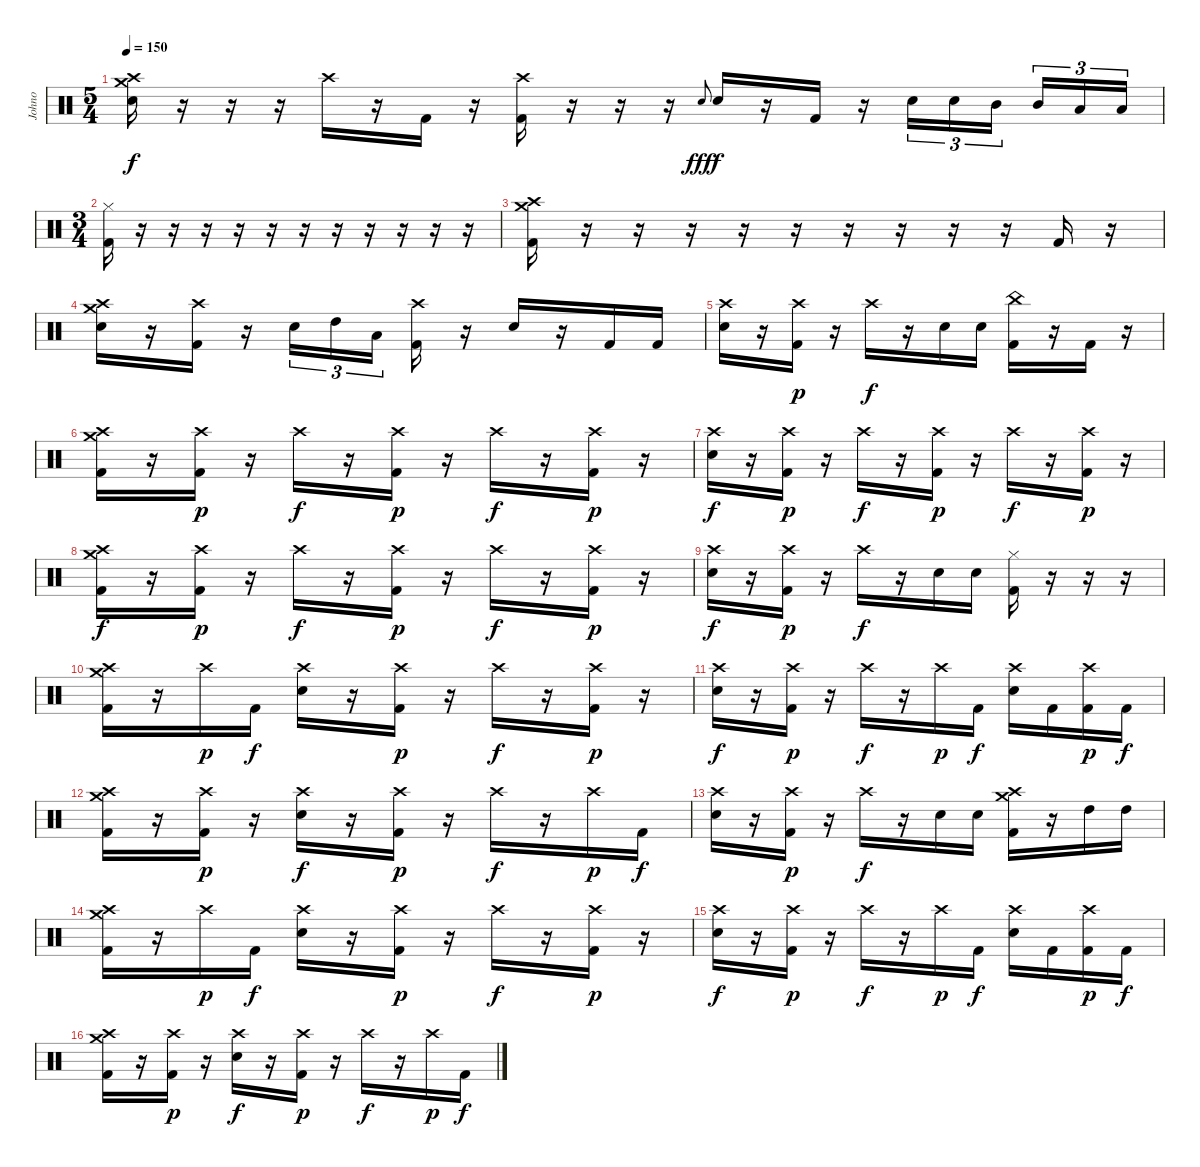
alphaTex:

\track ("Johno" "Johno") {instrument percussion}
\staff {score}
\articulation defaults
\ts (5 4)
\tempo 150
\clef neutral
\ks c
("Crash medium (hit)" "Crash high (hit)" "Electric Snare (hit)").16{dy f} r.16 r.16 r.16 "Crash high (hit)".16 r.16 "Kick (hit) 2".16 r.16 ("Crash high (hit)" "Kick (hit) 2").16 r.16 r.16 r.16 "Electric Snare (hit)".8{gr onbeat dy fff} "Electric Snare (hit)".16{dy f} r.16 "Kick (hit) 2".16 r.16 "Electric Snare (hit)".16{tu (3 2)} "Electric Snare (hit)".16{tu (3 2)} "Mid Tom (hit)".16{tu (3 2) beam splitsecondary} "Mid Tom (hit)".16{tu (3 2)} "Low Floor Tom (hit)".16{tu (3 2)} "Low Floor Tom (hit)".16{tu (3 2)} |
\ts (3 4)
("Hi-Hat (closed)" "Kick (hit) 2").16 r.16 r.16 r.16 r.16 r.16 r.16 r.16 r.16 r.16 r.16 r.16 |
("Crash medium (hit)" "Crash high (hit)" "Kick (hit) 2").16 r.16 r.16 r.16 r.16 r.16 r.16 r.16 r.16 r.16 "Kick (hit) 2".16 r.16 |
("Crash medium (hit)" "Crash high (hit)" "Electric Snare (hit)").16 r.16 ("Crash high (hit)" "Kick (hit) 2").16 r.16 "Electric Snare (hit)".16{tu (3 2)} "High Tom (hit)".16{tu (3 2)} "Low Floor Tom (hit)".16{tu (3 2) beam splitsecondary} ("Crash high (hit)" "Kick (hit) 2").16 r.16 "Electric Snare (hit)".16 r.16 "Kick (hit) 2".16 "Kick (hit) 2".16 |
("Crash high (hit)" "Electric Snare (hit)").16 r.16 ("Crash high (hit)" "Kick (hit) 2").16{dy p} r.16 "Crash high (hit)".16{dy f} r.16 "Electric Snare (hit)".16 "Electric Snare (hit)".16 ("China (hit)" "Kick (hit) 2").16 r.16 "Kick (hit) 2".16 r.16 |
("Crash medium (hit)" "Crash high (hit)" "Kick (hit) 2").16 r.16 ("Crash high (hit)" "Kick (hit) 2").16{dy p} r.16 "Crash high (hit)".16{dy f} r.16 ("Crash high (hit)" "Kick (hit) 2").16{dy p} r.16 "Crash high (hit)".16{dy f} r.16 ("Crash high (hit)" "Kick (hit) 2").16{dy p} r.16 |
("Crash high (hit)" "Electric Snare (hit)").16{dy f} r.16 ("Crash high (hit)" "Kick (hit) 2").16{dy p} r.16 "Crash high (hit)".16{dy f} r.16 ("Crash high (hit)" "Kick (hit) 2").16{dy p} r.16 "Crash high (hit)".16{dy f} r.16 ("Crash high (hit)" "Kick (hit) 2").16{dy p} r.16 |
("Crash medium (hit)" "Crash high (hit)" "Kick (hit) 2").16{dy f} r.16 ("Crash high (hit)" "Kick (hit) 2").16{dy p} r.16 "Crash high (hit)".16{dy f} r.16 ("Crash high (hit)" "Kick (hit) 2").16{dy p} r.16 "Crash high (hit)".16{dy f} r.16 ("Crash high (hit)" "Kick (hit) 2").16{dy p} r.16 |
("Crash high (hit)" "Electric Snare (hit)").16{dy f} r.16 ("Crash high (hit)" "Kick (hit) 2").16{dy p} r.16 "Crash high (hit)".16{dy f} r.16 "Electric Snare (hit)".16 "Electric Snare (hit)".16 ("Hi-Hat (closed)" "Kick (hit) 2").16 r.16 r.16 r.16 |
("Crash medium (hit)" "Crash high (hit)" "Kick (hit) 2").16 r.16 "Crash high (hit)".16{dy p} "Kick (hit) 2".16{dy f} ("Crash high (hit)" "Electric Snare (hit)").16 r.16 ("Crash high (hit)" "Kick (hit) 2").16{dy p} r.16 "Crash high (hit)".16{dy f} r.16 ("Crash high (hit)" "Kick (hit) 2").16{dy p} r.16 |
("Crash high (hit)" "Electric Snare (hit)").16{dy f} r.16 ("Crash high (hit)" "Kick (hit) 2").16{dy p} r.16 "Crash high (hit)".16{dy f} r.16 "Crash high (hit)".16{dy p} "Kick (hit) 2".16{dy f} ("Crash high (hit)" "Electric Snare (hit)").16 "Kick (hit) 2".16 ("Crash high (hit)" "Kick (hit) 2").16{dy p} "Kick (hit) 2".16{dy f} |
("Crash medium (hit)" "Crash high (hit)" "Kick (hit) 2").16 r.16 ("Crash high (hit)" "Kick (hit) 2").16{dy p} r.16 ("Crash high (hit)" "Electric Snare (hit)").16{dy f} r.16 ("Crash high (hit)" "Kick (hit) 2").16{dy p} r.16 "Crash high (hit)".16{dy f} r.16 "Crash high (hit)".16{dy p} "Kick (hit) 2".16{dy f} |
("Crash high (hit)" "Electric Snare (hit)").16 r.16 ("Crash high (hit)" "Kick (hit) 2").16{dy p} r.16 "Crash high (hit)".16{dy f} r.16 "Electric Snare (hit)".16 "Electric Snare (hit)".16 ("Crash high (hit)" "Crash medium (hit)" "Kick (hit) 2").16 r.16 "High Tom (hit)".16 "High Tom (hit)".16 |
("Crash medium (hit)" "Crash high (hit)" "Kick (hit) 2").16 r.16 "Crash high (hit)".16{dy p} "Kick (hit) 2".16{dy f} ("Crash high (hit)" "Electric Snare (hit)").16 r.16 ("Crash high (hit)" "Kick (hit) 2").16{dy p} r.16 "Crash high (hit)".16{dy f} r.16 ("Crash high (hit)" "Kick (hit) 2").16{dy p} r.16 |
("Crash high (hit)" "Electric Snare (hit)").16{dy f} r.16 ("Crash high (hit)" "Kick (hit) 2").16{dy p} r.16 "Crash high (hit)".16{dy f} r.16 "Crash high (hit)".16{dy p} "Kick (hit) 2".16{dy f} ("Crash high (hit)" "Electric Snare (hit)").16 "Kick (hit) 2".16 ("Crash high (hit)" "Kick (hit) 2").16{dy p} "Kick (hit) 2".16{dy f} |
("Crash medium (hit)" "Crash high (hit)" "Kick (hit) 2").16 r.16 ("Crash high (hit)" "Kick (hit) 2").16{dy p} r.16 ("Crash high (hit)" "Electric Snare (hit)").16{dy f} r.16 ("Crash high (hit)" "Kick (hit) 2").16{dy p} r.16 "Crash high (hit)".16{dy f} r.16 "Crash high (hit)".16{dy p} "Kick (hit) 2".16{dy f}
